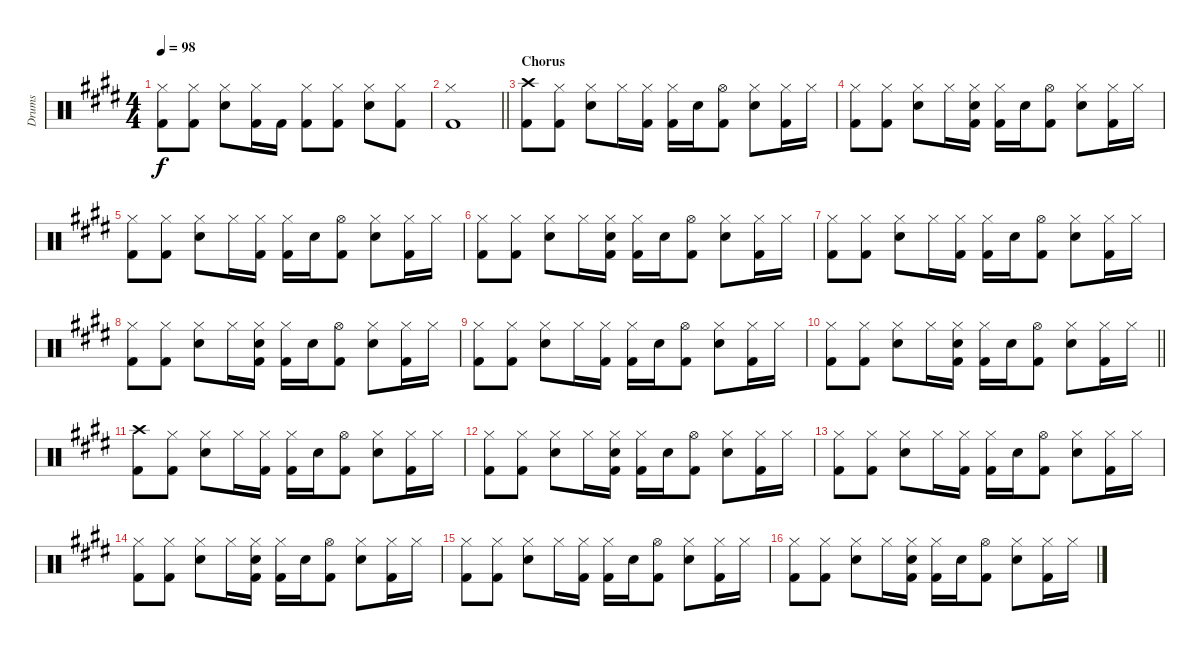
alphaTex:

\track ("Drums" "Drums") {instrument percussion}
\staff {score}
\articulation defaults
\ts (4 4)
\tempo 98
\clef neutral
\ks e
("Hi-Hat (closed)" "Kick (hit) 2").8{dy f} ("Hi-Hat (closed)" "Kick (hit) 2").8 ("Hi-Hat (closed)" "Electric Snare (hit)").8 ("Hi-Hat (closed)" "Kick (hit) 2").16 "Kick (hit) 2".16 ("Hi-Hat (closed)" "Kick (hit) 2").8 ("Hi-Hat (closed)" "Kick (hit) 2").8 ("Hi-Hat (closed)" "Electric Snare (hit)").8 ("Hi-Hat (closed)" "Kick (hit) 2").8 |
\barLineRight lightlight
("Hi-Hat (closed)" "Kick (hit) 2").1 |
\section ("" "Chorus")
("Crash high (hit)" "Kick (hit) 2").8 ("Hi-Hat (closed)" "Kick (hit) 2").8 ("Hi-Hat (closed)" "Electric Snare (hit)").8 "Hi-Hat (closed)".16 ("Hi-Hat (closed)" "Kick (hit) 2").16 ("Hi-Hat (closed)" "Kick (hit) 2").16 "Electric Snare (hit)".16 ("Hi-Hat (open)" "Kick (hit) 2").8 ("Hi-Hat (closed)" "Electric Snare (hit)").8 ("Hi-Hat (closed)" "Kick (hit) 2").16 "Hi-Hat (closed)".16 |
("Hi-Hat (closed)" "Kick (hit) 2").8 ("Hi-Hat (closed)" "Kick (hit) 2").8 ("Hi-Hat (closed)" "Electric Snare (hit)").8 "Hi-Hat (closed)".16 ("Hi-Hat (closed)" "Electric Snare (hit)" "Kick (hit) 2").16 ("Hi-Hat (closed)" "Kick (hit) 2").16 "Electric Snare (hit)".16 ("Hi-Hat (open)" "Kick (hit) 2").8 ("Hi-Hat (closed)" "Electric Snare (hit)").8 ("Hi-Hat (closed)" "Kick (hit) 2").16 "Hi-Hat (closed)".16 |
("Hi-Hat (closed)" "Kick (hit) 2").8 ("Hi-Hat (closed)" "Kick (hit) 2").8 ("Hi-Hat (closed)" "Electric Snare (hit)").8 "Hi-Hat (closed)".16 ("Hi-Hat (closed)" "Kick (hit) 2").16 ("Hi-Hat (closed)" "Kick (hit) 2").16 "Electric Snare (hit)".16 ("Hi-Hat (open)" "Kick (hit) 2").8 ("Hi-Hat (closed)" "Electric Snare (hit)").8 ("Hi-Hat (closed)" "Kick (hit) 2").16 "Hi-Hat (closed)".16 |
("Hi-Hat (closed)" "Kick (hit) 2").8 ("Hi-Hat (closed)" "Kick (hit) 2").8 ("Hi-Hat (closed)" "Electric Snare (hit)").8 "Hi-Hat (closed)".16 ("Hi-Hat (closed)" "Electric Snare (hit)" "Kick (hit) 2").16 ("Hi-Hat (closed)" "Kick (hit) 2").16 "Electric Snare (hit)".16 ("Hi-Hat (open)" "Kick (hit) 2").8 ("Hi-Hat (closed)" "Electric Snare (hit)").8 ("Hi-Hat (closed)" "Kick (hit) 2").16 "Hi-Hat (closed)".16 |
("Hi-Hat (closed)" "Kick (hit) 2").8 ("Hi-Hat (closed)" "Kick (hit) 2").8 ("Hi-Hat (closed)" "Electric Snare (hit)").8 "Hi-Hat (closed)".16 ("Hi-Hat (closed)" "Kick (hit) 2").16 ("Hi-Hat (closed)" "Kick (hit) 2").16 "Electric Snare (hit)".16 ("Hi-Hat (open)" "Kick (hit) 2").8 ("Hi-Hat (closed)" "Electric Snare (hit)").8 ("Hi-Hat (closed)" "Kick (hit) 2").16 "Hi-Hat (closed)".16 |
("Hi-Hat (closed)" "Kick (hit) 2").8 ("Hi-Hat (closed)" "Kick (hit) 2").8 ("Hi-Hat (closed)" "Electric Snare (hit)").8 "Hi-Hat (closed)".16 ("Hi-Hat (closed)" "Electric Snare (hit)" "Kick (hit) 2").16 ("Hi-Hat (closed)" "Kick (hit) 2").16 "Electric Snare (hit)".16 ("Hi-Hat (open)" "Kick (hit) 2").8 ("Hi-Hat (closed)" "Electric Snare (hit)").8 ("Hi-Hat (closed)" "Kick (hit) 2").16 "Hi-Hat (closed)".16 |
("Hi-Hat (closed)" "Kick (hit) 2").8 ("Hi-Hat (closed)" "Kick (hit) 2").8 ("Hi-Hat (closed)" "Electric Snare (hit)").8 "Hi-Hat (closed)".16 ("Hi-Hat (closed)" "Kick (hit) 2").16 ("Hi-Hat (closed)" "Kick (hit) 2").16 "Electric Snare (hit)".16 ("Hi-Hat (open)" "Kick (hit) 2").8 ("Hi-Hat (closed)" "Electric Snare (hit)").8 ("Hi-Hat (closed)" "Kick (hit) 2").16 "Hi-Hat (closed)".16 |
\barLineRight lightlight
("Hi-Hat (closed)" "Kick (hit) 2").8 ("Hi-Hat (closed)" "Kick (hit) 2").8 ("Hi-Hat (closed)" "Electric Snare (hit)").8 "Hi-Hat (closed)".16 ("Hi-Hat (closed)" "Electric Snare (hit)" "Kick (hit) 2").16 ("Hi-Hat (closed)" "Kick (hit) 2").16 "Electric Snare (hit)".16 ("Hi-Hat (open)" "Kick (hit) 2").8 ("Hi-Hat (closed)" "Electric Snare (hit)").8 ("Hi-Hat (closed)" "Kick (hit) 2").16 "Hi-Hat (closed)".16 |
\section ("" "")
("Crash high (hit)" "Kick (hit) 2").8 ("Hi-Hat (closed)" "Kick (hit) 2").8 ("Hi-Hat (closed)" "Electric Snare (hit)").8 "Hi-Hat (closed)".16 ("Hi-Hat (closed)" "Kick (hit) 2").16 ("Hi-Hat (closed)" "Kick (hit) 2").16 "Electric Snare (hit)".16 ("Hi-Hat (open)" "Kick (hit) 2").8 ("Hi-Hat (closed)" "Electric Snare (hit)").8 ("Hi-Hat (closed)" "Kick (hit) 2").16 "Hi-Hat (closed)".16 |
("Hi-Hat (closed)" "Kick (hit) 2").8 ("Hi-Hat (closed)" "Kick (hit) 2").8 ("Hi-Hat (closed)" "Electric Snare (hit)").8 "Hi-Hat (closed)".16 ("Hi-Hat (closed)" "Electric Snare (hit)" "Kick (hit) 2").16 ("Hi-Hat (closed)" "Kick (hit) 2").16 "Electric Snare (hit)".16 ("Hi-Hat (open)" "Kick (hit) 2").8 ("Hi-Hat (closed)" "Electric Snare (hit)").8 ("Hi-Hat (closed)" "Kick (hit) 2").16 "Hi-Hat (closed)".16 |
("Hi-Hat (closed)" "Kick (hit) 2").8 ("Hi-Hat (closed)" "Kick (hit) 2").8 ("Hi-Hat (closed)" "Electric Snare (hit)").8 "Hi-Hat (closed)".16 ("Hi-Hat (closed)" "Kick (hit) 2").16 ("Hi-Hat (closed)" "Kick (hit) 2").16 "Electric Snare (hit)".16 ("Hi-Hat (open)" "Kick (hit) 2").8 ("Hi-Hat (closed)" "Electric Snare (hit)").8 ("Hi-Hat (closed)" "Kick (hit) 2").16 "Hi-Hat (closed)".16 |
("Hi-Hat (closed)" "Kick (hit) 2").8 ("Hi-Hat (closed)" "Kick (hit) 2").8 ("Hi-Hat (closed)" "Electric Snare (hit)").8 "Hi-Hat (closed)".16 ("Hi-Hat (closed)" "Electric Snare (hit)" "Kick (hit) 2").16 ("Hi-Hat (closed)" "Kick (hit) 2").16 "Electric Snare (hit)".16 ("Hi-Hat (open)" "Kick (hit) 2").8 ("Hi-Hat (closed)" "Electric Snare (hit)").8 ("Hi-Hat (closed)" "Kick (hit) 2").16 "Hi-Hat (closed)".16 |
("Hi-Hat (closed)" "Kick (hit) 2").8 ("Hi-Hat (closed)" "Kick (hit) 2").8 ("Hi-Hat (closed)" "Electric Snare (hit)").8 "Hi-Hat (closed)".16 ("Hi-Hat (closed)" "Kick (hit) 2").16 ("Hi-Hat (closed)" "Kick (hit) 2").16 "Electric Snare (hit)".16 ("Hi-Hat (open)" "Kick (hit) 2").8 ("Hi-Hat (closed)" "Electric Snare (hit)").8 ("Hi-Hat (closed)" "Kick (hit) 2").16 "Hi-Hat (closed)".16 |
("Hi-Hat (closed)" "Kick (hit) 2").8 ("Hi-Hat (closed)" "Kick (hit) 2").8 ("Hi-Hat (closed)" "Electric Snare (hit)").8 "Hi-Hat (closed)".16 ("Hi-Hat (closed)" "Electric Snare (hit)" "Kick (hit) 2").16 ("Hi-Hat (closed)" "Kick (hit) 2").16 "Electric Snare (hit)".16 ("Hi-Hat (open)" "Kick (hit) 2").8 ("Hi-Hat (closed)" "Electric Snare (hit)").8 ("Hi-Hat (closed)" "Kick (hit) 2").16 "Hi-Hat (closed)".16
